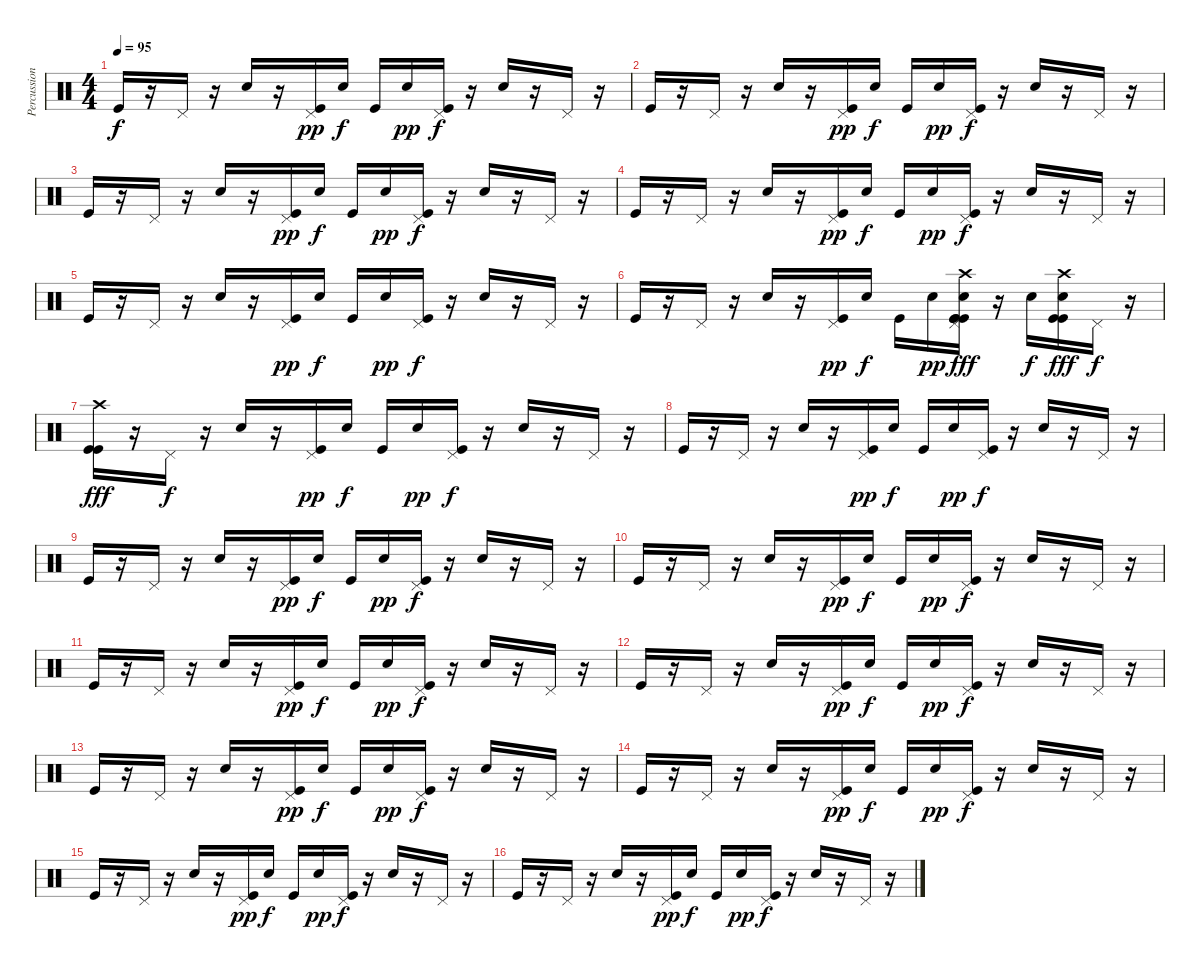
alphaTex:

\track ("Percussioni" "Percussion") {instrument percussion}
\staff {score}
\articulation defaults
\ts (4 4)
\tempo 95
\clef neutral
\ks c "Kick (hit)".16{dy f}
r.16 "Pedal Hi-Hat (hit)".16 r.16 "Snare (hit) 2".16 r.16 ("Kick (hit)" "Pedal Hi-Hat (hit)").16{dy pp} "Snare (hit) 2".16{dy f} "Kick (hit)".16 "Snare (hit) 2".16{dy pp} ("Kick (hit)" "Pedal Hi-Hat (hit)").16{dy f} r.16 "Snare (hit) 2".16 r.16 "Pedal Hi-Hat (hit)".16 r.16 |
"Kick (hit)".16 r.16 "Pedal Hi-Hat (hit)".16 r.16 "Snare (hit) 2".16 r.16 ("Kick (hit)" "Pedal Hi-Hat (hit)").16{dy pp} "Snare (hit) 2".16{dy f} "Kick (hit)".16 "Snare (hit) 2".16{dy pp} ("Kick (hit)" "Pedal Hi-Hat (hit)").16{dy f} r.16 "Snare (hit) 2".16 r.16 "Pedal Hi-Hat (hit)".16 r.16 |
"Kick (hit)".16 r.16 "Pedal Hi-Hat (hit)".16 r.16 "Electric Snare (hit)".16 r.16 ("Kick (hit)" "Pedal Hi-Hat (hit)").16{dy pp} "Electric Snare (hit)".16{dy f} "Kick (hit)".16 "Snare (hit) 2".16{dy pp} ("Kick (hit)" "Pedal Hi-Hat (hit)").16{dy f} r.16 "Electric Snare (hit)".16 r.16 "Pedal Hi-Hat (hit)".16 r.16 |
"Kick (hit)".16 r.16 "Pedal Hi-Hat (hit)".16 r.16 "Electric Snare (hit)".16 r.16 ("Kick (hit)" "Pedal Hi-Hat (hit)").16{dy pp} "Electric Snare (hit)".16{dy f} "Kick (hit)".16 "Snare (hit) 2".16{dy pp} ("Kick (hit)" "Pedal Hi-Hat (hit)").16{dy f} r.16 "Electric Snare (hit)".16 r.16 "Pedal Hi-Hat (hit)".16 r.16 |
"Kick (hit)".16 r.16 "Pedal Hi-Hat (hit)".16 r.16 "Electric Snare (hit)".16 r.16 ("Kick (hit)" "Pedal Hi-Hat (hit)").16{dy pp} "Electric Snare (hit)".16{dy f} "Kick (hit)".16 "Snare (hit) 2".16{dy pp} ("Kick (hit)" "Pedal Hi-Hat (hit)").16{dy f} r.16 "Electric Snare (hit)".16 r.16 "Pedal Hi-Hat (hit)".16 r.16 |
"Kick (hit)".16 r.16 "Pedal Hi-Hat (hit)".16 r.16 "Snare (hit) 2".16 r.16 ("Kick (hit)" "Pedal Hi-Hat (hit)").16{dy pp} "Snare (hit) 2".16{dy f} "Kick (hit)".16 "Snare (hit) 2".16{dy pp} ("Crash high (hit)" "Snare (hit) 2" "Kick (hit)" "Kick (hit)" "Pedal Hi-Hat (hit)" "Kick (hit)").16{dy fff} r.16 "Snare (hit) 2".16{dy f} ("Crash high (hit)" "Snare (hit) 2" "Kick (hit)" "Kick (hit)").16{dy fff} "Pedal Hi-Hat (hit)".16{dy f} r.16 |
("Crash high (hit)" "Kick (hit)" "Kick (hit)").16{dy fff} r.16 "Pedal Hi-Hat (hit)".16{dy f} r.16 "Electric Snare (hit)".16 r.16 ("Kick (hit)" "Pedal Hi-Hat (hit)").16{dy pp} "Electric Snare (hit)".16{dy f} "Kick (hit)".16 "Snare (hit) 2".16{dy pp} ("Kick (hit)" "Pedal Hi-Hat (hit)").16{dy f} r.16 "Electric Snare (hit)".16 r.16 "Pedal Hi-Hat (hit)".16 r.16 |
"Kick (hit)".16 r.16 "Pedal Hi-Hat (hit)".16 r.16 "Electric Snare (hit)".16 r.16 ("Kick (hit)" "Pedal Hi-Hat (hit)").16{dy pp} "Electric Snare (hit)".16{dy f} "Kick (hit)".16 "Snare (hit) 2".16{dy pp} ("Kick (hit)" "Pedal Hi-Hat (hit)").16{dy f} r.16 "Electric Snare (hit)".16 r.16 "Pedal Hi-Hat (hit)".16 r.16 |
"Kick (hit)".16 r.16 "Pedal Hi-Hat (hit)".16 r.16 "Electric Snare (hit)".16 r.16 ("Kick (hit)" "Pedal Hi-Hat (hit)").16{dy pp} "Electric Snare (hit)".16{dy f} "Kick (hit)".16 "Snare (hit) 2".16{dy pp} ("Kick (hit)" "Pedal Hi-Hat (hit)").16{dy f} r.16 "Electric Snare (hit)".16 r.16 "Pedal Hi-Hat (hit)".16 r.16 |
"Kick (hit)".16 r.16 "Pedal Hi-Hat (hit)".16 r.16 "Electric Snare (hit)".16 r.16 ("Kick (hit)" "Pedal Hi-Hat (hit)").16{dy pp} "Electric Snare (hit)".16{dy f} "Kick (hit)".16 "Snare (hit) 2".16{dy pp} ("Kick (hit)" "Pedal Hi-Hat (hit)").16{dy f} r.16 "Electric Snare (hit)".16 r.16 "Pedal Hi-Hat (hit)".16 r.16 |
"Kick (hit)".16 r.16 "Pedal Hi-Hat (hit)".16 r.16 "Electric Snare (hit)".16 r.16 ("Kick (hit)" "Pedal Hi-Hat (hit)").16{dy pp} "Electric Snare (hit)".16{dy f} "Kick (hit)".16 "Snare (hit) 2".16{dy pp} ("Kick (hit)" "Pedal Hi-Hat (hit)").16{dy f} r.16 "Electric Snare (hit)".16 r.16 "Pedal Hi-Hat (hit)".16 r.16 |
"Kick (hit)".16 r.16 "Pedal Hi-Hat (hit)".16 r.16 "Snare (hit) 2".16 r.16 ("Kick (hit)" "Pedal Hi-Hat (hit)").16{dy pp} "Snare (hit) 2".16{dy f} "Kick (hit)".16 "Snare (hit) 2".16{dy pp} ("Kick (hit)" "Pedal Hi-Hat (hit)").16{dy f} r.16 "Snare (hit) 2".16 r.16 "Pedal Hi-Hat (hit)".16 r.16 |
"Kick (hit)".16 r.16 "Pedal Hi-Hat (hit)".16 r.16 "Snare (hit) 2".16 r.16 ("Kick (hit)" "Pedal Hi-Hat (hit)").16{dy pp} "Snare (hit) 2".16{dy f} "Kick (hit)".16 "Snare (hit) 2".16{dy pp} ("Kick (hit)" "Pedal Hi-Hat (hit)").16{dy f} r.16 "Snare (hit) 2".16 r.16 "Pedal Hi-Hat (hit)".16 r.16 |
"Kick (hit)".16 r.16 "Pedal Hi-Hat (hit)".16 r.16 "Electric Snare (hit)".16 r.16 ("Kick (hit)" "Pedal Hi-Hat (hit)").16{dy pp} "Electric Snare (hit)".16{dy f} "Kick (hit)".16 "Snare (hit) 2".16{dy pp} ("Kick (hit)" "Pedal Hi-Hat (hit)").16{dy f} r.16 "Electric Snare (hit)".16 r.16 "Pedal Hi-Hat (hit)".16 r.16 |
"Kick (hit)".16 r.16 "Pedal Hi-Hat (hit)".16 r.16 "Electric Snare (hit)".16 r.16 ("Kick (hit)" "Pedal Hi-Hat (hit)").16{dy pp} "Electric Snare (hit)".16{dy f} "Kick (hit)".16 "Snare (hit) 2".16{dy pp} ("Kick (hit)" "Pedal Hi-Hat (hit)").16{dy f} r.16 "Electric Snare (hit)".16 r.16 "Pedal Hi-Hat (hit)".16 r.16 |
"Kick (hit)".16 r.16 "Pedal Hi-Hat (hit)".16 r.16 "Electric Snare (hit)".16 r.16 ("Kick (hit)" "Pedal Hi-Hat (hit)").16{dy pp} "Electric Snare (hit)".16{dy f} "Kick (hit)".16 "Snare (hit) 2".16{dy pp} ("Kick (hit)" "Pedal Hi-Hat (hit)").16{dy f} r.16 "Electric Snare (hit)".16 r.16 "Pedal Hi-Hat (hit)".16 r.16
